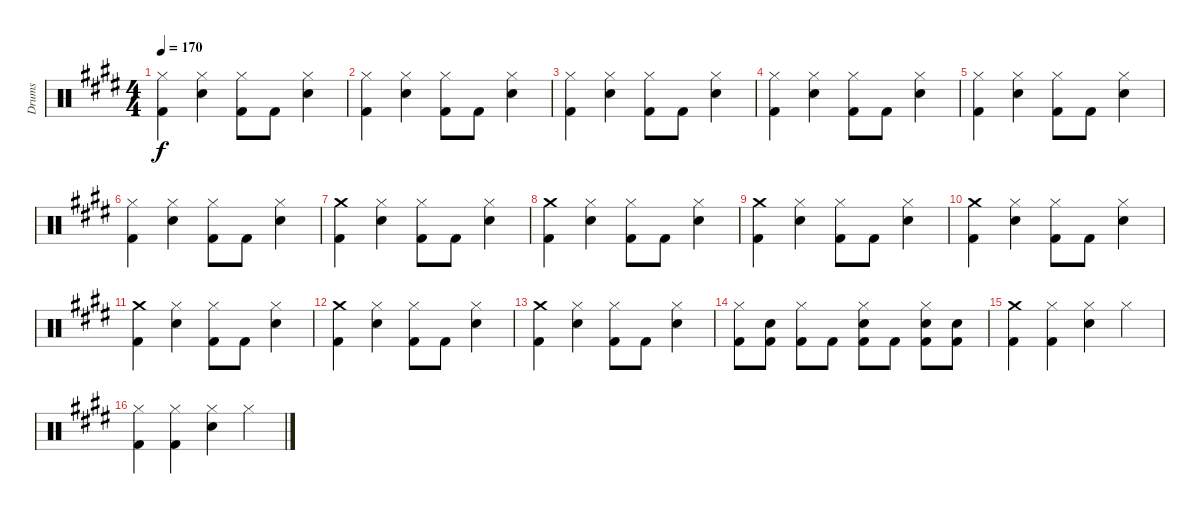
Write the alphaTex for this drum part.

\track ("Drums" "Drums") {instrument percussion}
\staff {score}
\articulation defaults
\ts (4 4)
\tempo 170
\clef neutral
\ks c#minor
("Hi-Hat (closed)" "Kick (hit) 2").4{dy f} ("Hi-Hat (closed)" "Electric Snare (hit)").4 ("Hi-Hat (closed)" "Kick (hit) 2").8 "Kick (hit) 2".8 ("Hi-Hat (closed)" "Electric Snare (hit)").4 |
("Hi-Hat (closed)" "Kick (hit) 2").4 ("Hi-Hat (closed)" "Electric Snare (hit)").4 ("Hi-Hat (closed)" "Kick (hit) 2").8 "Kick (hit) 2".8 ("Hi-Hat (closed)" "Electric Snare (hit)").4 |
("Hi-Hat (closed)" "Kick (hit) 2").4 ("Hi-Hat (closed)" "Electric Snare (hit)").4 ("Hi-Hat (closed)" "Kick (hit) 2").8 "Kick (hit) 2".8 ("Hi-Hat (closed)" "Electric Snare (hit)").4 |
("Hi-Hat (closed)" "Kick (hit) 2").4 ("Hi-Hat (closed)" "Electric Snare (hit)").4 ("Hi-Hat (closed)" "Kick (hit) 2").8 "Kick (hit) 2".8 ("Hi-Hat (closed)" "Electric Snare (hit)").4 |
("Hi-Hat (closed)" "Kick (hit) 2").4 ("Hi-Hat (closed)" "Electric Snare (hit)").4 ("Hi-Hat (closed)" "Kick (hit) 2").8 "Kick (hit) 2".8 ("Hi-Hat (closed)" "Electric Snare (hit)").4 |
("Hi-Hat (closed)" "Kick (hit) 2").4 ("Hi-Hat (closed)" "Electric Snare (hit)").4 ("Hi-Hat (closed)" "Kick (hit) 2").8 "Kick (hit) 2".8 ("Hi-Hat (closed)" "Electric Snare (hit)").4 |
("Crash medium (hit)" "Kick (hit) 2").4 ("Hi-Hat (closed)" "Electric Snare (hit)").4 ("Hi-Hat (closed)" "Kick (hit) 2").8 "Kick (hit) 2".8 ("Hi-Hat (closed)" "Electric Snare (hit)").4 |
("Crash medium (hit)" "Kick (hit) 2").4 ("Hi-Hat (closed)" "Electric Snare (hit)").4 ("Hi-Hat (closed)" "Kick (hit) 2").8 "Kick (hit) 2".8 ("Hi-Hat (closed)" "Electric Snare (hit)").4 |
("Crash medium (hit)" "Kick (hit) 2").4 ("Hi-Hat (closed)" "Electric Snare (hit)").4 ("Hi-Hat (closed)" "Kick (hit) 2").8 "Kick (hit) 2".8 ("Hi-Hat (closed)" "Electric Snare (hit)").4 |
("Crash medium (hit)" "Kick (hit) 2").4 ("Hi-Hat (closed)" "Electric Snare (hit)").4 ("Hi-Hat (closed)" "Kick (hit) 2").8 "Kick (hit) 2".8 ("Hi-Hat (closed)" "Electric Snare (hit)").4 |
("Crash medium (hit)" "Kick (hit) 2").4 ("Hi-Hat (closed)" "Electric Snare (hit)").4 ("Hi-Hat (closed)" "Kick (hit) 2").8 "Kick (hit) 2".8 ("Hi-Hat (closed)" "Electric Snare (hit)").4 |
("Crash medium (hit)" "Kick (hit) 2").4 ("Hi-Hat (closed)" "Electric Snare (hit)").4 ("Hi-Hat (closed)" "Kick (hit) 2").8 "Kick (hit) 2".8 ("Hi-Hat (closed)" "Electric Snare (hit)").4 |
("Crash medium (hit)" "Kick (hit) 2").4 ("Hi-Hat (closed)" "Electric Snare (hit)").4 ("Hi-Hat (closed)" "Kick (hit) 2").8 "Kick (hit) 2".8 ("Hi-Hat (closed)" "Electric Snare (hit)").4 |
("Hi-Hat (closed)" "Kick (hit) 2").8 ("Electric Snare (hit)" "Kick (hit) 2").8 ("Hi-Hat (closed)" "Kick (hit) 2").8 "Kick (hit) 2".8 ("Hi-Hat (closed)" "Electric Snare (hit)" "Kick (hit) 2").8 "Kick (hit) 2".8 ("Hi-Hat (closed)" "Electric Snare (hit)" "Kick (hit) 2").8 ("Electric Snare (hit)" "Kick (hit) 2").8 |
("Crash medium (hit)" "Kick (hit) 2").4 ("Hi-Hat (closed)" "Kick (hit) 2").4 ("Hi-Hat (closed)" "Electric Snare (hit)").4 "Hi-Hat (closed)".4 |
("Hi-Hat (closed)" "Kick (hit) 2").4 ("Hi-Hat (closed)" "Kick (hit) 2").4 ("Hi-Hat (closed)" "Electric Snare (hit)").4 "Hi-Hat (closed)".4
